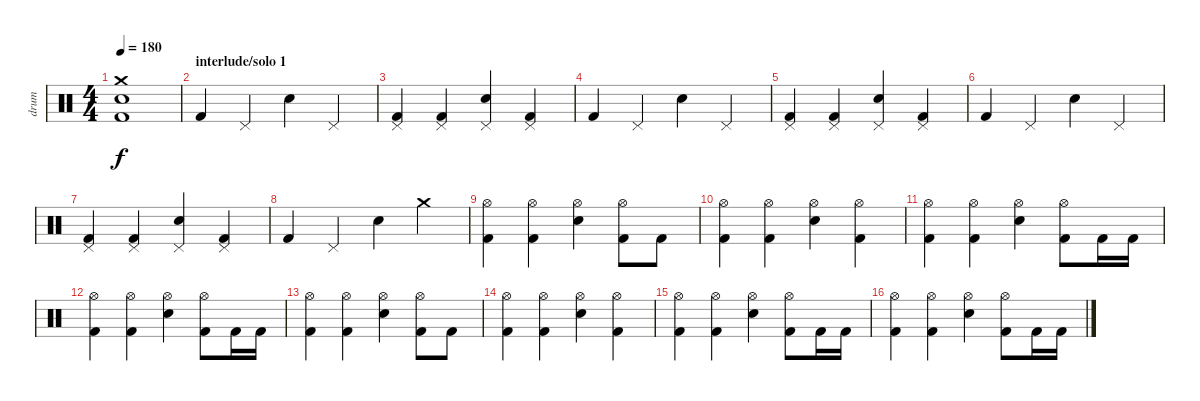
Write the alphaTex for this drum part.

\track ("drum" "drum") {instrument percussion}
\staff {score}
\articulation defaults
\ts (4 4)
\tempo 180
\clef neutral
\ks c
("Crash medium (hit)" "Electric Snare (hit)" "Kick (hit) 2").1{dy f} |
\section ("" "interlude/solo 1")
"Kick (hit) 2".4 "Pedal Hi-Hat (hit)".4 "Electric Snare (hit)".4 "Pedal Hi-Hat (hit)".4 |
("Pedal Hi-Hat (hit)" "Kick (hit) 2").4 ("Pedal Hi-Hat (hit)" "Kick (hit) 2").4 ("Pedal Hi-Hat (hit)" "Electric Snare (hit)").4 ("Pedal Hi-Hat (hit)" "Kick (hit) 2").4 |
"Kick (hit) 2".4 "Pedal Hi-Hat (hit)".4 "Electric Snare (hit)".4 "Pedal Hi-Hat (hit)".4 |
("Pedal Hi-Hat (hit)" "Kick (hit) 2").4 ("Pedal Hi-Hat (hit)" "Kick (hit) 2").4 ("Pedal Hi-Hat (hit)" "Electric Snare (hit)").4 ("Pedal Hi-Hat (hit)" "Kick (hit) 2").4 |
"Kick (hit) 2".4 "Pedal Hi-Hat (hit)".4 "Electric Snare (hit)".4 "Pedal Hi-Hat (hit)".4 |
("Pedal Hi-Hat (hit)" "Kick (hit) 2").4 ("Pedal Hi-Hat (hit)" "Kick (hit) 2").4 ("Pedal Hi-Hat (hit)" "Electric Snare (hit)").4 ("Pedal Hi-Hat (hit)" "Kick (hit) 2").4 |
"Kick (hit) 2".4 "Pedal Hi-Hat (hit)".4 "Electric Snare (hit)".4 "Crash medium (hit)".4 |
("Hi-Hat (open)" "Kick (hit) 2").4 ("Hi-Hat (open)" "Kick (hit) 2").4 ("Hi-Hat (open)" "Electric Snare (hit)").4 ("Hi-Hat (open)" "Kick (hit) 2").8 "Kick (hit) 2".8 |
("Hi-Hat (open)" "Kick (hit) 2").4 ("Hi-Hat (open)" "Kick (hit) 2").4 ("Hi-Hat (open)" "Electric Snare (hit)").4 ("Hi-Hat (open)" "Kick (hit) 2").4 |
("Hi-Hat (open)" "Kick (hit) 2").4 ("Hi-Hat (open)" "Kick (hit) 2").4 ("Hi-Hat (open)" "Electric Snare (hit)").4 ("Hi-Hat (open)" "Kick (hit) 2").8 "Kick (hit) 2".16 "Kick (hit) 2".16 |
("Hi-Hat (open)" "Kick (hit) 2").4 ("Hi-Hat (open)" "Kick (hit) 2").4 ("Hi-Hat (open)" "Electric Snare (hit)").4 ("Hi-Hat (open)" "Kick (hit) 2").8 "Kick (hit) 2".16 "Kick (hit) 2".16 |
("Hi-Hat (open)" "Kick (hit) 2").4 ("Hi-Hat (open)" "Kick (hit) 2").4 ("Hi-Hat (open)" "Electric Snare (hit)").4 ("Hi-Hat (open)" "Kick (hit) 2").8 "Kick (hit) 2".8 |
("Hi-Hat (open)" "Kick (hit) 2").4 ("Hi-Hat (open)" "Kick (hit) 2").4 ("Hi-Hat (open)" "Electric Snare (hit)").4 ("Hi-Hat (open)" "Kick (hit) 2").4 |
("Hi-Hat (open)" "Kick (hit) 2").4 ("Hi-Hat (open)" "Kick (hit) 2").4 ("Hi-Hat (open)" "Electric Snare (hit)").4 ("Hi-Hat (open)" "Kick (hit) 2").8 "Kick (hit) 2".16 "Kick (hit) 2".16 |
("Hi-Hat (open)" "Kick (hit) 2").4 ("Hi-Hat (open)" "Kick (hit) 2").4 ("Hi-Hat (open)" "Electric Snare (hit)").4 ("Hi-Hat (open)" "Kick (hit) 2").8 "Kick (hit) 2".16 "Kick (hit) 2".16
